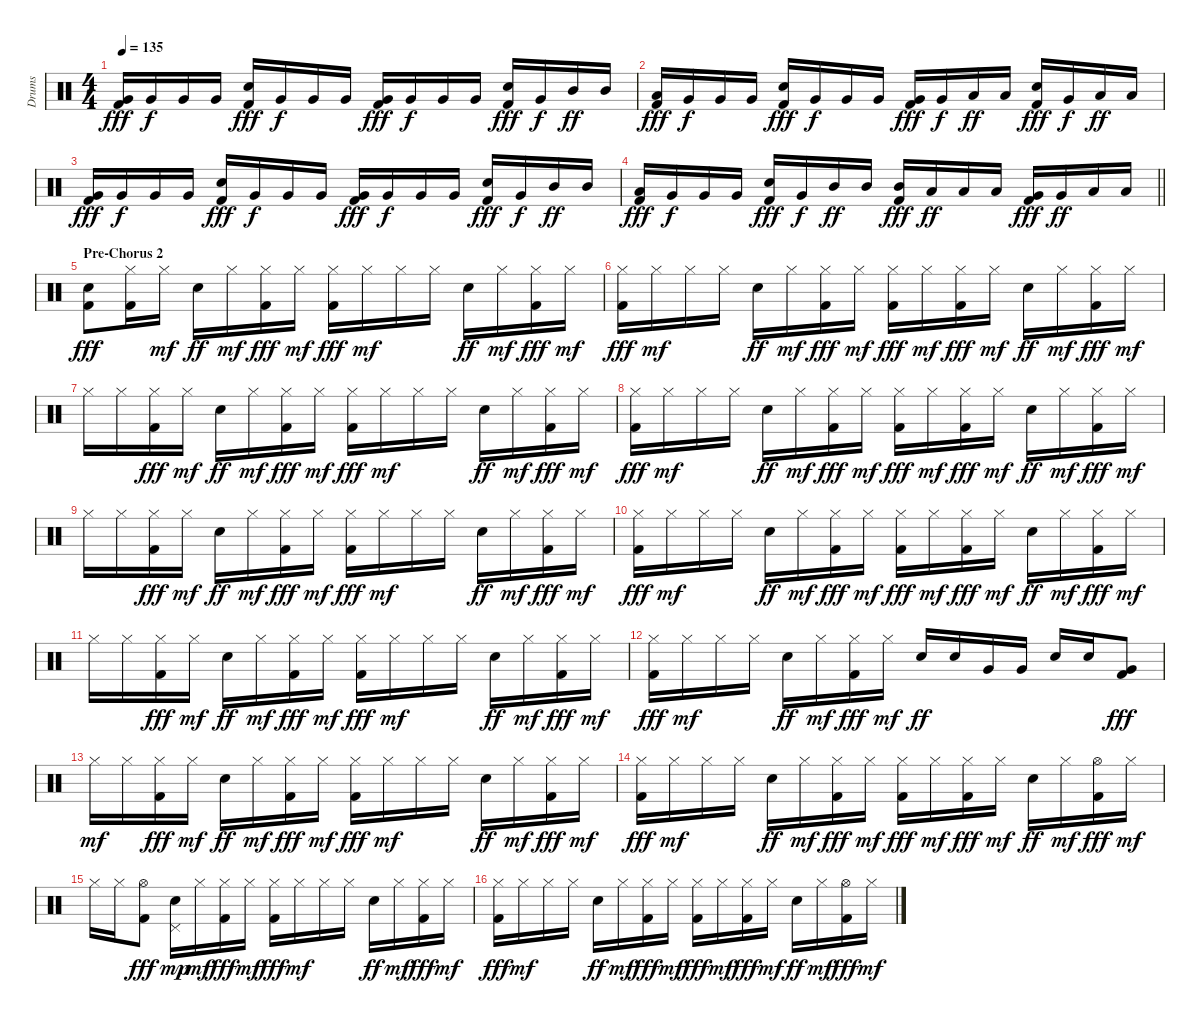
\track ("Drums" "Drums") {instrument percussion}
\staff {score}
\articulation defaults
\ts (4 4)
\tempo 135
\clef neutral
\ks c
("Very Low Tom (hit)" "Kick (hit) 2").16{dy fff} "Very Low Tom (hit)".16{dy f} "Very Low Tom (hit)".16 "Very Low Tom (hit)".16 ("Snare (hit) 2" "Kick (hit) 2").16{dy fff} "Very Low Tom (hit)".16{dy f} "Very Low Tom (hit)".16 "Very Low Tom (hit)".16 ("Very Low Tom (hit)" "Kick (hit) 2").16{dy fff} "Very Low Tom (hit)".16{dy f} "Very Low Tom (hit)".16 "Very Low Tom (hit)".16 ("Snare (hit) 2" "Kick (hit) 2").16{dy fff} "Very Low Tom (hit)".16{dy f} "Mid Tom (hit)".16{dy ff} "Mid Tom (hit)".16 |
("Low Tom (hit)" "Kick (hit) 2").16{dy fff} "Very Low Tom (hit)".16{dy f} "Very Low Tom (hit)".16 "Very Low Tom (hit)".16 ("Snare (hit) 2" "Kick (hit) 2").16{dy fff} "Very Low Tom (hit)".16{dy f} "Very Low Tom (hit)".16 "Very Low Tom (hit)".16 ("Very Low Tom (hit)" "Kick (hit) 2").16{dy fff} "Very Low Tom (hit)".16{dy f} "Low Tom (hit)".16{dy ff} "Low Tom (hit)".16 ("Snare (hit) 2" "Kick (hit) 2").16{dy fff} "Very Low Tom (hit)".16{dy f} "Low Tom (hit)".16{dy ff} "Low Tom (hit)".16 |
("Very Low Tom (hit)" "Kick (hit) 2").16{dy fff} "Very Low Tom (hit)".16{dy f} "Very Low Tom (hit)".16 "Very Low Tom (hit)".16 ("Snare (hit) 2" "Kick (hit) 2").16{dy fff} "Very Low Tom (hit)".16{dy f} "Very Low Tom (hit)".16 "Very Low Tom (hit)".16 ("Very Low Tom (hit)" "Kick (hit) 2").16{dy fff} "Very Low Tom (hit)".16{dy f} "Very Low Tom (hit)".16 "Very Low Tom (hit)".16 ("Snare (hit) 2" "Kick (hit) 2").16{dy fff} "Very Low Tom (hit)".16{dy f} "Mid Tom (hit)".16{dy ff} "Mid Tom (hit)".16 |
\barLineRight lightlight
("Low Tom (hit)" "Kick (hit) 2").16{dy fff} "Very Low Tom (hit)".16{dy f} "Very Low Tom (hit)".16 "Very Low Tom (hit)".16 ("Snare (hit) 2" "Kick (hit) 2").16{dy fff} "Very Low Tom (hit)".16{dy f} "Mid Tom (hit)".16{dy ff} "Mid Tom (hit)".16 ("Mid Tom (hit)" "Kick (hit) 2").16{dy fff} "Low Tom (hit)".16{dy ff} "Low Tom (hit)".16 "Low Tom (hit)".16 ("Very Low Tom (hit)" "Kick (hit) 2").16{dy fff} "Very Low Tom (hit)".16{dy ff} "Low Floor Tom (hit)".16 "Low Floor Tom (hit)".16 |
\section ("" "Pre-Chorus 2")
("Snare (hit) 2" "Kick (hit) 2").8{dy fff} ("Hi-Hat (closed)" "Kick (hit) 2").16 "Hi-Hat (closed)".16{dy mf} "Snare (hit) 2".16{dy ff} "Hi-Hat (closed)".16{dy mf} ("Hi-Hat (closed)" "Kick (hit) 2").16{dy fff} "Hi-Hat (closed)".16{dy mf} ("Hi-Hat (closed)" "Kick (hit) 2").16{dy fff} "Hi-Hat (closed)".16{dy mf} "Hi-Hat (closed)".16 "Hi-Hat (closed)".16 "Snare (hit) 2".16{dy ff} "Hi-Hat (closed)".16{dy mf} ("Hi-Hat (closed)" "Kick (hit) 2").16{dy fff} "Hi-Hat (closed)".16{dy mf} |
("Hi-Hat (closed)" "Kick (hit) 2").16{dy fff} "Hi-Hat (closed)".16{dy mf} "Hi-Hat (closed)".16 "Hi-Hat (closed)".16 "Snare (hit) 2".16{dy ff} "Hi-Hat (closed)".16{dy mf} ("Hi-Hat (closed)" "Kick (hit) 2").16{dy fff} "Hi-Hat (closed)".16{dy mf} ("Hi-Hat (closed)" "Kick (hit) 2").16{dy fff} "Hi-Hat (closed)".16{dy mf} ("Hi-Hat (closed)" "Kick (hit) 2").16{dy fff} "Hi-Hat (closed)".16{dy mf} "Snare (hit) 2".16{dy ff} "Hi-Hat (closed)".16{dy mf} ("Hi-Hat (closed)" "Kick (hit) 2").16{dy fff} "Hi-Hat (closed)".16{dy mf} |
"Hi-Hat (closed)".16 "Hi-Hat (closed)".16 ("Hi-Hat (closed)" "Kick (hit) 2").16{dy fff} "Hi-Hat (closed)".16{dy mf} "Snare (hit) 2".16{dy ff} "Hi-Hat (closed)".16{dy mf} ("Hi-Hat (closed)" "Kick (hit) 2").16{dy fff} "Hi-Hat (closed)".16{dy mf} ("Hi-Hat (closed)" "Kick (hit) 2").16{dy fff} "Hi-Hat (closed)".16{dy mf} "Hi-Hat (closed)".16 "Hi-Hat (closed)".16 "Snare (hit) 2".16{dy ff} "Hi-Hat (closed)".16{dy mf} ("Hi-Hat (closed)" "Kick (hit) 2").16{dy fff} "Hi-Hat (closed)".16{dy mf} |
("Hi-Hat (closed)" "Kick (hit) 2").16{dy fff} "Hi-Hat (closed)".16{dy mf} "Hi-Hat (closed)".16 "Hi-Hat (closed)".16 "Snare (hit) 2".16{dy ff} "Hi-Hat (closed)".16{dy mf} ("Hi-Hat (closed)" "Kick (hit) 2").16{dy fff} "Hi-Hat (closed)".16{dy mf} ("Hi-Hat (closed)" "Kick (hit) 2").16{dy fff} "Hi-Hat (closed)".16{dy mf} ("Hi-Hat (closed)" "Kick (hit) 2").16{dy fff} "Hi-Hat (closed)".16{dy mf} "Snare (hit) 2".16{dy ff} "Hi-Hat (closed)".16{dy mf} ("Hi-Hat (closed)" "Kick (hit) 2").16{dy fff} "Hi-Hat (closed)".16{dy mf} |
"Hi-Hat (closed)".16 "Hi-Hat (closed)".16 ("Hi-Hat (closed)" "Kick (hit) 2").16{dy fff} "Hi-Hat (closed)".16{dy mf} "Snare (hit) 2".16{dy ff} "Hi-Hat (closed)".16{dy mf} ("Hi-Hat (closed)" "Kick (hit) 2").16{dy fff} "Hi-Hat (closed)".16{dy mf} ("Hi-Hat (closed)" "Kick (hit) 2").16{dy fff} "Hi-Hat (closed)".16{dy mf} "Hi-Hat (closed)".16 "Hi-Hat (closed)".16 "Snare (hit) 2".16{dy ff} "Hi-Hat (closed)".16{dy mf} ("Hi-Hat (closed)" "Kick (hit) 2").16{dy fff} "Hi-Hat (closed)".16{dy mf} |
("Hi-Hat (closed)" "Kick (hit) 2").16{dy fff} "Hi-Hat (closed)".16{dy mf} "Hi-Hat (closed)".16 "Hi-Hat (closed)".16 "Snare (hit) 2".16{dy ff} "Hi-Hat (closed)".16{dy mf} ("Hi-Hat (closed)" "Kick (hit) 2").16{dy fff} "Hi-Hat (closed)".16{dy mf} ("Hi-Hat (closed)" "Kick (hit) 2").16{dy fff} "Hi-Hat (closed)".16{dy mf} ("Hi-Hat (closed)" "Kick (hit) 2").16{dy fff} "Hi-Hat (closed)".16{dy mf} "Snare (hit) 2".16{dy ff} "Hi-Hat (closed)".16{dy mf} ("Hi-Hat (closed)" "Kick (hit) 2").16{dy fff} "Hi-Hat (closed)".16{dy mf} |
"Hi-Hat (closed)".16 "Hi-Hat (closed)".16 ("Hi-Hat (closed)" "Kick (hit) 2").16{dy fff} "Hi-Hat (closed)".16{dy mf} "Snare (hit) 2".16{dy ff} "Hi-Hat (closed)".16{dy mf} ("Hi-Hat (closed)" "Kick (hit) 2").16{dy fff} "Hi-Hat (closed)".16{dy mf} ("Hi-Hat (closed)" "Kick (hit) 2").16{dy fff} "Hi-Hat (closed)".16{dy mf} "Hi-Hat (closed)".16 "Hi-Hat (closed)".16 "Snare (hit) 2".16{dy ff} "Hi-Hat (closed)".16{dy mf} ("Hi-Hat (closed)" "Kick (hit) 2").16{dy fff} "Hi-Hat (closed)".16{dy mf} |
("Hi-Hat (closed)" "Kick (hit) 2").16{dy fff} "Hi-Hat (closed)".16{dy mf} "Hi-Hat (closed)".16 "Hi-Hat (closed)".16 "Snare (hit) 2".16{dy ff} "Hi-Hat (closed)".16{dy mf} ("Hi-Hat (closed)" "Kick (hit) 2").16{dy fff} "Hi-Hat (closed)".16{dy mf} "Snare (hit) 2".16{dy ff} "Snare (hit) 2".16 "Very Low Tom (hit)".16 "Very Low Tom (hit)".16 "Snare (hit) 2".16 "Snare (hit) 2".16 ("Very Low Tom (hit)" "Kick (hit) 2").8{dy fff} |
"Hi-Hat (closed)".16{dy mf} "Hi-Hat (closed)".16 ("Hi-Hat (closed)" "Kick (hit) 2").16{dy fff} "Hi-Hat (closed)".16{dy mf} "Snare (hit) 2".16{dy ff} "Hi-Hat (closed)".16{dy mf} ("Hi-Hat (closed)" "Kick (hit) 2").16{dy fff} "Hi-Hat (closed)".16{dy mf} ("Hi-Hat (closed)" "Kick (hit) 2").16{dy fff} "Hi-Hat (closed)".16{dy mf} "Hi-Hat (closed)".16 "Hi-Hat (closed)".16 "Snare (hit) 2".16{dy ff} "Hi-Hat (closed)".16{dy mf} ("Hi-Hat (closed)" "Kick (hit) 2").16{dy fff} "Hi-Hat (closed)".16{dy mf} |
("Hi-Hat (closed)" "Kick (hit) 2").16{dy fff} "Hi-Hat (closed)".16{dy mf} "Hi-Hat (closed)".16 "Hi-Hat (closed)".16 "Snare (hit) 2".16{dy ff} "Hi-Hat (closed)".16{dy mf} ("Hi-Hat (closed)" "Kick (hit) 2").16{dy fff} "Hi-Hat (closed)".16{dy mf} ("Hi-Hat (closed)" "Kick (hit) 2").16{dy fff} "Hi-Hat (closed)".16{dy mf} ("Hi-Hat (closed)" "Kick (hit) 2").16{dy fff} "Hi-Hat (closed)".16{dy mf} "Snare (hit) 2".16{dy ff} "Hi-Hat (closed)".16{dy mf} ("Hi-Hat (open)" "Kick (hit) 2").16{dy fff} "Hi-Hat (closed)".16{dy mf} |
"Hi-Hat (closed)".16 "Hi-Hat (closed)".16 ("Hi-Hat (open)" "Kick (hit) 2").8{dy fff} ("Snare (hit) 2" "Pedal Hi-Hat (hit)").16{dy mp} "Hi-Hat (closed)".16{dy mf} ("Hi-Hat (closed)" "Kick (hit) 2").16{dy fff} "Hi-Hat (closed)".16{dy mf} ("Hi-Hat (closed)" "Kick (hit) 2").16{dy fff} "Hi-Hat (closed)".16{dy mf} "Hi-Hat (closed)".16 "Hi-Hat (closed)".16 "Snare (hit) 2".16{dy ff} "Hi-Hat (closed)".16{dy mf} ("Hi-Hat (closed)" "Kick (hit) 2").16{dy fff} "Hi-Hat (closed)".16{dy mf} |
("Hi-Hat (closed)" "Kick (hit) 2").16{dy fff} "Hi-Hat (closed)".16{dy mf} "Hi-Hat (closed)".16 "Hi-Hat (closed)".16 "Snare (hit) 2".16{dy ff} "Hi-Hat (closed)".16{dy mf} ("Hi-Hat (closed)" "Kick (hit) 2").16{dy fff} "Hi-Hat (closed)".16{dy mf} ("Hi-Hat (closed)" "Kick (hit) 2").16{dy fff} "Hi-Hat (closed)".16{dy mf} ("Hi-Hat (closed)" "Kick (hit) 2").16{dy fff} "Hi-Hat (closed)".16{dy mf} "Snare (hit) 2".16{dy ff} "Hi-Hat (closed)".16{dy mf} ("Hi-Hat (open)" "Kick (hit) 2").16{dy fff} "Hi-Hat (closed)".16{dy mf}
